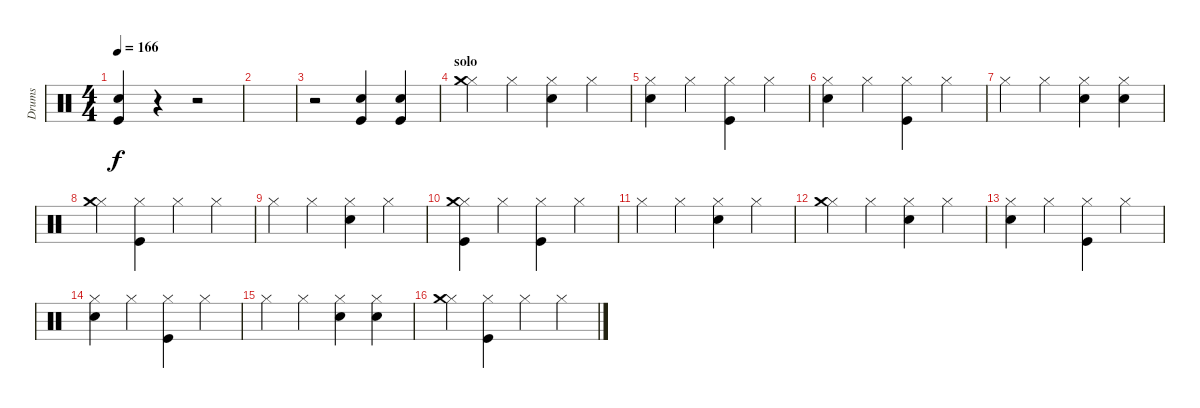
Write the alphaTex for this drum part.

\track ("Drums" "Drums") {instrument percussion}
\staff {score}
\articulation defaults
\ts (4 4)
\tempo 166
\clef neutral
\ks c
("Kick (hit)" "Snare (hit) 2").4{dy f} r.4 r.2 |
|
r.2 ("Kick (hit)" "Snare (hit) 2").4 ("Kick (hit)" "Snare (hit) 2").4 |
\section ("" "solo")
("Hi-Hat (closed)" "Crash medium (hit)").4 "Hi-Hat (closed)".4 ("Hi-Hat (closed)" "Snare (hit) 2").4 "Hi-Hat (closed)".4 |
("Hi-Hat (closed)" "Snare (hit) 2").4 "Hi-Hat (closed)".4 ("Hi-Hat (closed)" "Kick (hit)").4 "Hi-Hat (closed)".4 |
("Hi-Hat (closed)" "Snare (hit) 2").4 "Hi-Hat (closed)".4 ("Hi-Hat (closed)" "Kick (hit)").4 "Hi-Hat (closed)".4 |
"Hi-Hat (closed)".4 "Hi-Hat (closed)".4 ("Hi-Hat (closed)" "Snare (hit) 2").4 ("Hi-Hat (closed)" "Snare (hit) 2").4 |
("Hi-Hat (closed)" "Crash medium (hit)").4 ("Hi-Hat (closed)" "Kick (hit)").4 "Hi-Hat (closed)".4 "Hi-Hat (closed)".4 |
"Hi-Hat (closed)".4 "Hi-Hat (closed)".4 ("Hi-Hat (closed)" "Snare (hit) 2").4 "Hi-Hat (closed)".4 |
("Hi-Hat (closed)" "Kick (hit)" "Crash medium (hit)").4 "Hi-Hat (closed)".4 ("Hi-Hat (closed)" "Kick (hit)").4 "Hi-Hat (closed)".4 |
"Hi-Hat (closed)".4 "Hi-Hat (closed)".4 ("Hi-Hat (closed)" "Snare (hit) 2").4 "Hi-Hat (closed)".4 |
("Hi-Hat (closed)" "Crash medium (hit)").4 "Hi-Hat (closed)".4 ("Hi-Hat (closed)" "Snare (hit) 2").4 "Hi-Hat (closed)".4 |
("Hi-Hat (closed)" "Snare (hit) 2").4 "Hi-Hat (closed)".4 ("Hi-Hat (closed)" "Kick (hit)").4 "Hi-Hat (closed)".4 |
("Hi-Hat (closed)" "Snare (hit) 2").4 "Hi-Hat (closed)".4 ("Hi-Hat (closed)" "Kick (hit)").4 "Hi-Hat (closed)".4 |
"Hi-Hat (closed)".4 "Hi-Hat (closed)".4 ("Hi-Hat (closed)" "Snare (hit) 2").4 ("Hi-Hat (closed)" "Snare (hit) 2").4 |
("Hi-Hat (closed)" "Crash medium (hit)").4 ("Hi-Hat (closed)" "Kick (hit)").4 "Hi-Hat (closed)".4 "Hi-Hat (closed)".4
